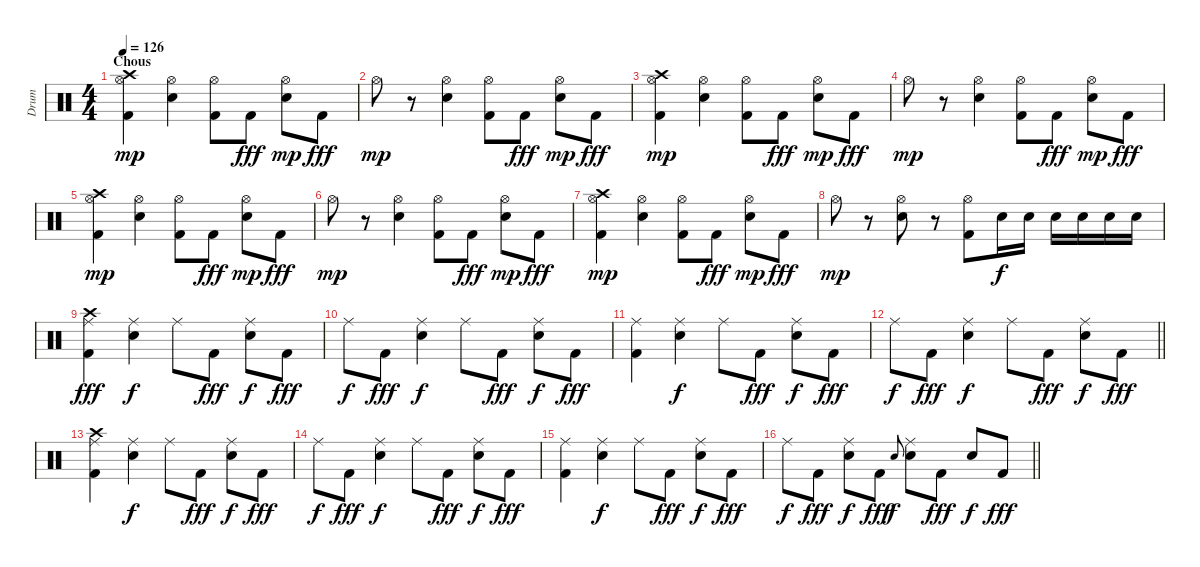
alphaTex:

\track ("Drum" "Drum") {instrument percussion}
\staff {score}
\articulation defaults
\ts (4 4)
\section ("" "Chous")
\tempo 126
\clef neutral
\ks c
("Kick (hit) 2" "Hi-Hat (open)" "Crash high (hit)").4{dy mp} ("Electric Snare (hit)" "Hi-Hat (open)").4 ("Kick (hit) 2" "Hi-Hat (open)").8 "Kick (hit) 2".8{dy fff} ("Electric Snare (hit)" "Hi-Hat (open)").8{dy mp} "Kick (hit) 2".8{dy fff} |
"Hi-Hat (open)".8{dy mp} r.8 ("Electric Snare (hit)" "Hi-Hat (open)").4 ("Kick (hit) 2" "Hi-Hat (open)").8 "Kick (hit) 2".8{dy fff} ("Electric Snare (hit)" "Hi-Hat (open)").8{dy mp} "Kick (hit) 2".8{dy fff} |
("Kick (hit) 2" "Hi-Hat (open)" "Crash high (hit)").4{dy mp} ("Electric Snare (hit)" "Hi-Hat (open)").4 ("Kick (hit) 2" "Hi-Hat (open)").8 "Kick (hit) 2".8{dy fff} ("Electric Snare (hit)" "Hi-Hat (open)").8{dy mp} "Kick (hit) 2".8{dy fff} |
"Hi-Hat (open)".8{dy mp} r.8 ("Electric Snare (hit)" "Hi-Hat (open)").4 ("Kick (hit) 2" "Hi-Hat (open)").8 "Kick (hit) 2".8{dy fff} ("Electric Snare (hit)" "Hi-Hat (open)").8{dy mp} "Kick (hit) 2".8{dy fff} |
("Kick (hit) 2" "Hi-Hat (open)" "Crash high (hit)").4{dy mp} ("Electric Snare (hit)" "Hi-Hat (open)").4 ("Kick (hit) 2" "Hi-Hat (open)").8 "Kick (hit) 2".8{dy fff} ("Electric Snare (hit)" "Hi-Hat (open)").8{dy mp} "Kick (hit) 2".8{dy fff} |
"Hi-Hat (open)".8{dy mp} r.8 ("Electric Snare (hit)" "Hi-Hat (open)").4 ("Kick (hit) 2" "Hi-Hat (open)").8 "Kick (hit) 2".8{dy fff} ("Electric Snare (hit)" "Hi-Hat (open)").8{dy mp} "Kick (hit) 2".8{dy fff} |
("Kick (hit) 2" "Hi-Hat (open)" "Crash high (hit)").4{dy mp} ("Electric Snare (hit)" "Hi-Hat (open)").4 ("Kick (hit) 2" "Hi-Hat (open)").8 "Kick (hit) 2".8{dy fff} ("Electric Snare (hit)" "Hi-Hat (open)").8{dy mp} "Kick (hit) 2".8{dy fff} |
"Hi-Hat (open)".8{dy mp} r.8 ("Electric Snare (hit)" "Hi-Hat (open)").8 r.8 ("Kick (hit) 2" "Hi-Hat (open)").8 "Electric Snare (hit)".16{dy f} "Electric Snare (hit)".16 "Electric Snare (hit)".16 "Electric Snare (hit)".16 "Electric Snare (hit)".16 "Electric Snare (hit)".16 |
("Kick (hit) 2" "Ride (middle)" "Crash high (hit)").4{dy fff} ("Electric Snare (hit)" "Ride (middle)").4{dy f} "Ride (middle)".8 "Kick (hit) 2".8{dy fff} ("Electric Snare (hit)" "Ride (middle)").8{dy f} "Kick (hit) 2".8{dy fff} |
"Ride (middle)".8{dy f} "Kick (hit) 2".8{dy fff} ("Electric Snare (hit)" "Ride (middle)").4{dy f} "Ride (middle)".8 "Kick (hit) 2".8{dy fff} ("Electric Snare (hit)" "Ride (middle)").8{dy f} "Kick (hit) 2".8{dy fff} |
("Kick (hit) 2" "Ride (middle)").4 ("Electric Snare (hit)" "Ride (middle)").4{dy f} "Ride (middle)".8 "Kick (hit) 2".8{dy fff} ("Electric Snare (hit)" "Ride (middle)").8{dy f} "Kick (hit) 2".8{dy fff} |
\barLineRight lightlight "Ride (middle)".8{dy f} "Kick (hit) 2".8{dy fff}
("Electric Snare (hit)" "Ride (middle)").4{dy f} "Ride (middle)".8 "Kick (hit) 2".8{dy fff} ("Electric Snare (hit)" "Ride (middle)").8{dy f} "Kick (hit) 2".8{dy fff} |
("Kick (hit) 2" "Ride (middle)" "Crash high (hit)").4 ("Electric Snare (hit)" "Ride (middle)").4{dy f} "Ride (middle)".8 "Kick (hit) 2".8{dy fff} ("Electric Snare (hit)" "Ride (middle)").8{dy f} "Kick (hit) 2".8{dy fff} |
"Ride (middle)".8{dy f} "Kick (hit) 2".8{dy fff} ("Electric Snare (hit)" "Ride (middle)").4{dy f} "Ride (middle)".8 "Kick (hit) 2".8{dy fff} ("Electric Snare (hit)" "Ride (middle)").8{dy f} "Kick (hit) 2".8{dy fff} |
("Kick (hit) 2" "Ride (middle)").4 ("Electric Snare (hit)" "Ride (middle)").4{dy f} "Ride (middle)".8 "Kick (hit) 2".8{dy fff} ("Electric Snare (hit)" "Ride (middle)").8{dy f} "Kick (hit) 2".8{dy fff} |
\barLineRight lightlight "Ride (middle)".8{dy f} "Kick (hit) 2".8{dy fff}
("Electric Snare (hit)" "Ride (middle)").8{dy f} "Kick (hit) 2".8{dy fff} "Electric Snare (hit)".8{gr onbeat dy f} ("Electric Snare (hit)" "Ride (middle)").8 "Kick (hit) 2".8{dy fff} "Electric Snare (hit)".8{dy f} "Kick (hit) 2".8{dy fff}
